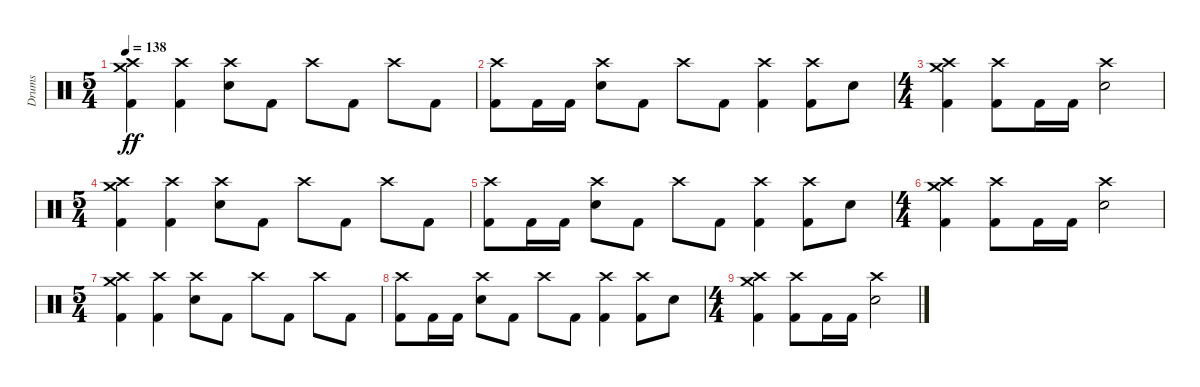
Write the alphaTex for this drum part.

\track ("Drums" "Drums") {instrument percussion}
\staff {score}
\articulation defaults
\ts (5 4)
\tempo 138
\clef neutral
\ks c
("Crash medium (hit)" "Crash high (hit)" "Kick (hit) 2").4{dy ff} ("Crash high (hit)" "Kick (hit) 2").4 ("Crash high (hit)" "Electric Snare (hit)").8 "Kick (hit) 2".8{volume 6} "Crash high (hit)".8 "Kick (hit) 2".8 "Crash high (hit)".8 "Kick (hit) 2".8 |
("Crash high (hit)" "Kick (hit) 2").8 "Kick (hit) 2".16 "Kick (hit) 2".16 ("Crash high (hit)" "Electric Snare (hit)").8 "Kick (hit) 2".8 "Crash high (hit)".8 "Kick (hit) 2".8 ("Crash high (hit)" "Kick (hit) 2").4 ("Crash high (hit)" "Kick (hit) 2").8 "Electric Snare (hit)".8 |
\ts (4 4)
("Crash medium (hit)" "Crash high (hit)" "Kick (hit) 2").4 ("Crash high (hit)" "Kick (hit) 2").8 "Kick (hit) 2".16 "Kick (hit) 2".16 ("Crash high (hit)" "Electric Snare (hit)").2 |
\ts (5 4)
("Crash medium (hit)" "Crash high (hit)" "Kick (hit) 2").4 ("Crash high (hit)" "Kick (hit) 2").4 ("Crash high (hit)" "Electric Snare (hit)").8 "Kick (hit) 2".8 "Crash high (hit)".8 "Kick (hit) 2".8 "Crash high (hit)".8 "Kick (hit) 2".8 |
("Crash high (hit)" "Kick (hit) 2").8{volume 2} "Kick (hit) 2".16 "Kick (hit) 2".16 ("Crash high (hit)" "Electric Snare (hit)").8 "Kick (hit) 2".8 "Crash high (hit)".8 "Kick (hit) 2".8 ("Crash high (hit)" "Kick (hit) 2").4 ("Crash high (hit)" "Kick (hit) 2").8 "Electric Snare (hit)".8 |
\ts (4 4)
("Crash medium (hit)" "Crash high (hit)" "Kick (hit) 2").4 ("Crash high (hit)" "Kick (hit) 2").8 "Kick (hit) 2".16 "Kick (hit) 2".16 ("Crash high (hit)" "Electric Snare (hit)").2 |
\ts (5 4)
("Crash medium (hit)" "Crash high (hit)" "Kick (hit) 2").4 ("Crash high (hit)" "Kick (hit) 2").4 ("Crash high (hit)" "Electric Snare (hit)").8 "Kick (hit) 2".8 "Crash high (hit)".8 "Kick (hit) 2".8 "Crash high (hit)".8 "Kick (hit) 2".8 |
("Crash high (hit)" "Kick (hit) 2").8 "Kick (hit) 2".16 "Kick (hit) 2".16 ("Crash high (hit)" "Electric Snare (hit)").8 "Kick (hit) 2".8 "Crash high (hit)".8 "Kick (hit) 2".8{volume 0} ("Crash high (hit)" "Kick (hit) 2").4 ("Crash high (hit)" "Kick (hit) 2").8 "Electric Snare (hit)".8 |
\ts (4 4)
("Crash medium (hit)" "Crash high (hit)" "Kick (hit) 2").4 ("Crash high (hit)" "Kick (hit) 2").8 "Kick (hit) 2".16 "Kick (hit) 2".16 ("Crash high (hit)" "Electric Snare (hit)").2
